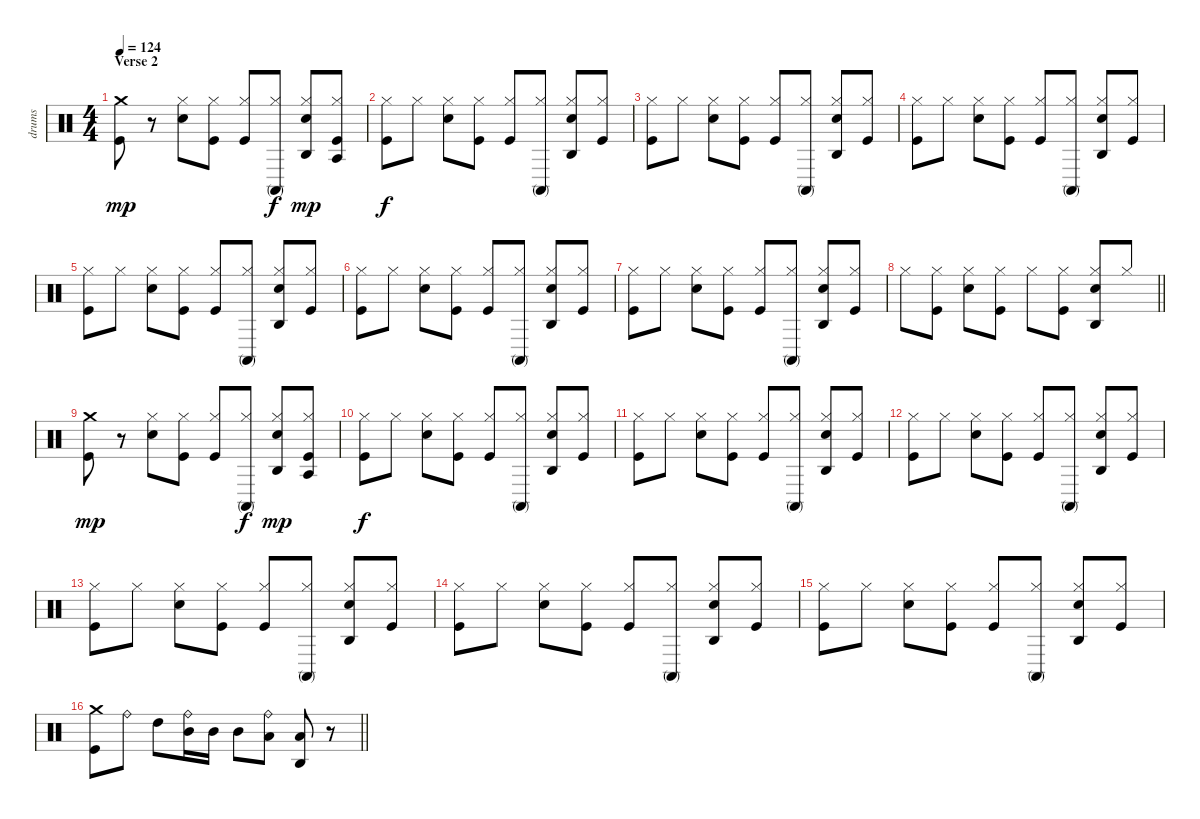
\track ("drums" "drums") {instrument percussion}
\staff {score}
\articulation defaults
\ts (4 4)
\section ("" "Verse 2")
\tempo 124
\clef neutral
\ks c
("Crash medium (hit)" "Kick (hit)").8{dy mp} r.8 ("Electric Snare (hit)" "Hi-Hat (closed)").8 ("Hi-Hat (closed)" "Kick (hit)").8 ("Hi-Hat (closed)" "Kick (hit)").8 ("Conga high (mute)" "Hi-Hat (closed)").8{dy f} ("Agogo high (hit)" "Electric Snare (hit)" "Hi-Hat (closed)").8{dy mp} ("Agogo tow (hit)" "Hi-Hat (closed)" "Kick (hit)").8 |
("Hi-Hat (closed)" "Kick (hit)").8{dy f} "Hi-Hat (closed)".8 ("Electric Snare (hit)" "Hi-Hat (closed)").8 ("Hi-Hat (closed)" "Kick (hit)").8 ("Hi-Hat (closed)" "Kick (hit)").8 ("Conga high (mute)" "Hi-Hat (closed)").8 ("Agogo high (hit)" "Electric Snare (hit)" "Hi-Hat (closed)").8 ("Hi-Hat (closed)" "Kick (hit)").8 |
("Hi-Hat (closed)" "Kick (hit)").8 "Hi-Hat (closed)".8 ("Electric Snare (hit)" "Hi-Hat (closed)").8 ("Hi-Hat (closed)" "Kick (hit)").8 ("Hi-Hat (closed)" "Kick (hit)").8 ("Conga high (mute)" "Hi-Hat (closed)").8 ("Agogo high (hit)" "Electric Snare (hit)" "Hi-Hat (closed)").8 ("Hi-Hat (closed)" "Kick (hit)").8 |
("Hi-Hat (closed)" "Kick (hit)").8 "Hi-Hat (closed)".8 ("Electric Snare (hit)" "Hi-Hat (closed)").8 ("Hi-Hat (closed)" "Kick (hit)").8 ("Hi-Hat (closed)" "Kick (hit)").8 ("Conga high (mute)" "Hi-Hat (closed)").8 ("Agogo high (hit)" "Electric Snare (hit)" "Hi-Hat (closed)").8 ("Hi-Hat (closed)" "Kick (hit)").8 |
("Hi-Hat (closed)" "Kick (hit)").8 "Hi-Hat (closed)".8 ("Electric Snare (hit)" "Hi-Hat (closed)").8 ("Hi-Hat (closed)" "Kick (hit)").8 ("Hi-Hat (closed)" "Kick (hit)").8 ("Conga high (mute)" "Hi-Hat (closed)").8 ("Agogo high (hit)" "Electric Snare (hit)" "Hi-Hat (closed)").8 ("Hi-Hat (closed)" "Kick (hit)").8 |
("Hi-Hat (closed)" "Kick (hit)").8 "Hi-Hat (closed)".8 ("Electric Snare (hit)" "Hi-Hat (closed)").8 ("Hi-Hat (closed)" "Kick (hit)").8 ("Hi-Hat (closed)" "Kick (hit)").8 ("Conga high (mute)" "Hi-Hat (closed)").8 ("Agogo high (hit)" "Electric Snare (hit)" "Hi-Hat (closed)").8 ("Hi-Hat (closed)" "Kick (hit)").8 |
("Hi-Hat (closed)" "Kick (hit)").8 "Hi-Hat (closed)".8 ("Electric Snare (hit)" "Hi-Hat (closed)").8 ("Hi-Hat (closed)" "Kick (hit)").8 ("Hi-Hat (closed)" "Kick (hit)").8 ("Conga high (mute)" "Hi-Hat (closed)").8 ("Agogo high (hit)" "Electric Snare (hit)" "Hi-Hat (closed)").8 ("Hi-Hat (closed)" "Kick (hit)").8 |
\barLineRight lightlight "Hi-Hat (closed)".8
("Hi-Hat (closed)" "Kick (hit)").8 ("Electric Snare (hit)" "Hi-Hat (closed)").8 ("Hi-Hat (closed)" "Kick (hit)").8 "Hi-Hat (closed)".8 ("Hi-Hat (closed)" "Kick (hit)").8 ("Agogo high (hit)" "Electric Snare (hit)" "Hi-Hat (closed)").8 "Hi-Hat (closed)".8 |
("Crash medium (hit)" "Kick (hit)").8{dy mp} r.8 ("Electric Snare (hit)" "Hi-Hat (closed)").8 ("Hi-Hat (closed)" "Kick (hit)").8 ("Hi-Hat (closed)" "Kick (hit)").8 ("Conga high (mute)" "Hi-Hat (closed)").8{dy f} ("Agogo high (hit)" "Electric Snare (hit)" "Hi-Hat (closed)").8{dy mp} ("Agogo tow (hit)" "Hi-Hat (closed)" "Kick (hit)").8 |
("Hi-Hat (closed)" "Kick (hit)").8{dy f} "Hi-Hat (closed)".8 ("Electric Snare (hit)" "Hi-Hat (closed)").8 ("Hi-Hat (closed)" "Kick (hit)").8 ("Hi-Hat (closed)" "Kick (hit)").8 ("Conga high (mute)" "Hi-Hat (closed)").8 ("Agogo high (hit)" "Electric Snare (hit)" "Hi-Hat (closed)").8 ("Hi-Hat (closed)" "Kick (hit)").8 |
("Hi-Hat (closed)" "Kick (hit)").8 "Hi-Hat (closed)".8 ("Electric Snare (hit)" "Hi-Hat (closed)").8 ("Hi-Hat (closed)" "Kick (hit)").8 ("Hi-Hat (closed)" "Kick (hit)").8 ("Conga high (mute)" "Hi-Hat (closed)").8 ("Agogo high (hit)" "Electric Snare (hit)" "Hi-Hat (closed)").8 ("Hi-Hat (closed)" "Kick (hit)").8 |
("Hi-Hat (closed)" "Kick (hit)").8 "Hi-Hat (closed)".8 ("Electric Snare (hit)" "Hi-Hat (closed)").8 ("Hi-Hat (closed)" "Kick (hit)").8 ("Hi-Hat (closed)" "Kick (hit)").8 ("Conga high (mute)" "Hi-Hat (closed)").8 ("Agogo high (hit)" "Electric Snare (hit)" "Hi-Hat (closed)").8 ("Hi-Hat (closed)" "Kick (hit)").8 |
("Hi-Hat (closed)" "Kick (hit)").8 "Hi-Hat (closed)".8 ("Electric Snare (hit)" "Hi-Hat (closed)").8 ("Hi-Hat (closed)" "Kick (hit)").8 ("Hi-Hat (closed)" "Kick (hit)").8 ("Conga high (mute)" "Hi-Hat (closed)").8 ("Agogo high (hit)" "Electric Snare (hit)" "Hi-Hat (closed)").8 ("Hi-Hat (closed)" "Kick (hit)").8 |
("Hi-Hat (closed)" "Kick (hit)").8 "Hi-Hat (closed)".8 ("Electric Snare (hit)" "Hi-Hat (closed)").8 ("Hi-Hat (closed)" "Kick (hit)").8 ("Hi-Hat (closed)" "Kick (hit)").8 ("Conga high (mute)" "Hi-Hat (closed)").8 ("Agogo high (hit)" "Electric Snare (hit)" "Hi-Hat (closed)").8 ("Hi-Hat (closed)" "Kick (hit)").8 |
("Hi-Hat (closed)" "Kick (hit)").8 "Hi-Hat (closed)".8 ("Electric Snare (hit)" "Hi-Hat (closed)").8 ("Hi-Hat (closed)" "Kick (hit)").8 ("Hi-Hat (closed)" "Kick (hit)").8 ("Conga high (mute)" "Hi-Hat (closed)").8 ("Agogo high (hit)" "Electric Snare (hit)" "Hi-Hat (closed)").8 ("Hi-Hat (closed)" "Kick (hit)").8 |
\barLineRight lightlight
("Crash medium (hit)" "Kick (hit)").8 "Ride (bell)".8 "High Tom (hit)".8 ("Ride (bell)" "Mid Tom (hit)").16 "Mid Tom (hit)".16 "Mid Tom (hit)".8 ("Ride (bell)" "Low Tom (hit)").8 ("Agogo high (hit)" "Low Tom (hit)").8 r.8
